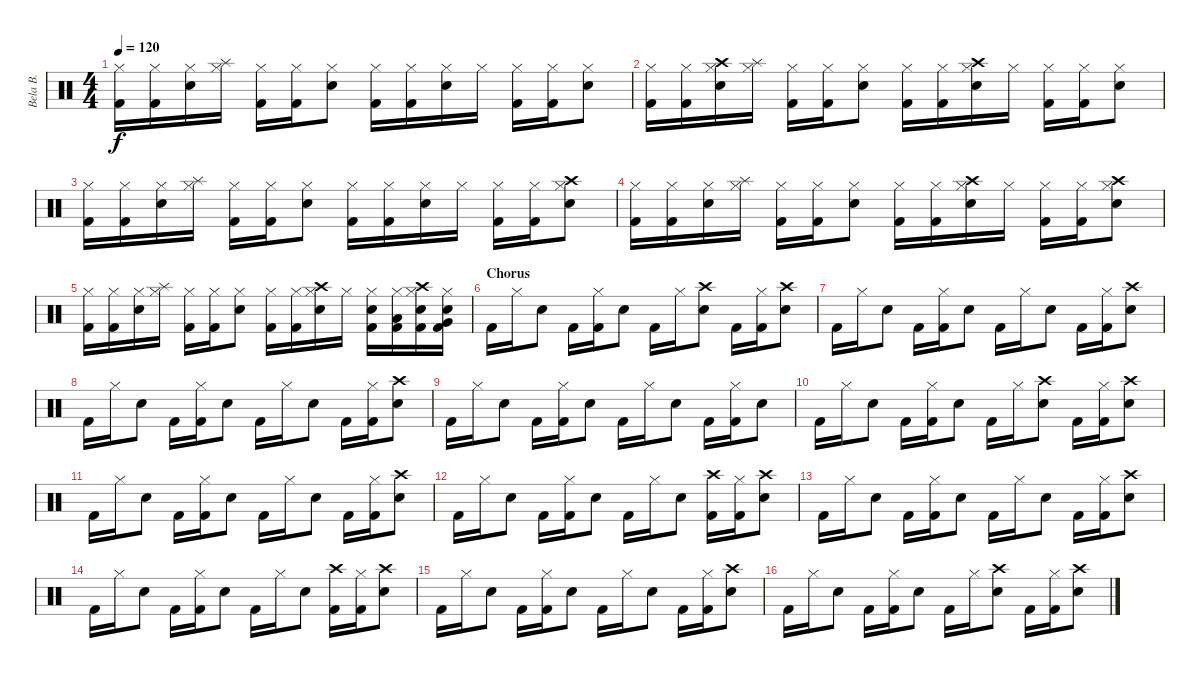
\track ("Bela B." "Bela B.") {instrument percussion}
\staff {score}
\articulation defaults
\ts (4 4)
\tempo 120
\clef neutral
\ks c
("Hi-Hat (closed)" "Kick (hit) 2").16{dy f} ("Hi-Hat (closed)" "Kick (hit) 2").16 ("Hi-Hat (closed)" "Electric Snare (hit)").16 ("Hi-Hat (closed)" "Splash (hit)").16 ("Hi-Hat (closed)" "Kick (hit) 2").16 ("Hi-Hat (closed)" "Kick (hit) 2").16 ("Hi-Hat (closed)" "Electric Snare (hit)").8 ("Hi-Hat (closed)" "Kick (hit) 2").16 ("Hi-Hat (closed)" "Kick (hit) 2").16 ("Hi-Hat (closed)" "Electric Snare (hit)").16 "Hi-Hat (closed)".16 ("Hi-Hat (closed)" "Kick (hit) 2").16 ("Hi-Hat (closed)" "Kick (hit) 2").16 ("Hi-Hat (closed)" "Electric Snare (hit)").8 |
("Hi-Hat (closed)" "Kick (hit) 2").16 ("Hi-Hat (closed)" "Kick (hit) 2").16 ("Hi-Hat (closed)" "Crash high (hit)" "Electric Snare (hit)").16 ("Hi-Hat (closed)" "Splash (hit)").16 ("Hi-Hat (closed)" "Kick (hit) 2").16 ("Hi-Hat (closed)" "Kick (hit) 2").16 ("Hi-Hat (closed)" "Electric Snare (hit)").8 ("Hi-Hat (closed)" "Kick (hit) 2").16 ("Hi-Hat (closed)" "Kick (hit) 2").16 ("Hi-Hat (closed)" "Crash high (hit)" "Electric Snare (hit)").16 "Hi-Hat (closed)".16 ("Hi-Hat (closed)" "Kick (hit) 2").16 ("Hi-Hat (closed)" "Kick (hit) 2").16 ("Hi-Hat (closed)" "Electric Snare (hit)").8 |
("Hi-Hat (closed)" "Kick (hit) 2").16 ("Hi-Hat (closed)" "Kick (hit) 2").16 ("Hi-Hat (closed)" "Electric Snare (hit)").16 ("Hi-Hat (closed)" "Splash (hit)").16 ("Hi-Hat (closed)" "Kick (hit) 2").16 ("Hi-Hat (closed)" "Kick (hit) 2").16 ("Hi-Hat (closed)" "Electric Snare (hit)").8 ("Hi-Hat (closed)" "Kick (hit) 2").16 ("Hi-Hat (closed)" "Kick (hit) 2").16 ("Hi-Hat (closed)" "Electric Snare (hit)").16 "Hi-Hat (closed)".16 ("Hi-Hat (closed)" "Kick (hit) 2").16 ("Hi-Hat (closed)" "Kick (hit) 2").16 ("Hi-Hat (closed)" "Crash high (hit)" "Electric Snare (hit)").8 |
("Hi-Hat (closed)" "Kick (hit) 2").16 ("Hi-Hat (closed)" "Kick (hit) 2").16 ("Hi-Hat (closed)" "Electric Snare (hit)").16 ("Hi-Hat (closed)" "Splash (hit)").16 ("Hi-Hat (closed)" "Kick (hit) 2").16 ("Hi-Hat (closed)" "Kick (hit) 2").16 ("Hi-Hat (closed)" "Electric Snare (hit)").8 ("Hi-Hat (closed)" "Kick (hit) 2").16 ("Hi-Hat (closed)" "Kick (hit) 2").16 ("Hi-Hat (closed)" "Crash high (hit)" "Electric Snare (hit)").16 "Hi-Hat (closed)".16 ("Hi-Hat (closed)" "Kick (hit) 2").16 ("Hi-Hat (closed)" "Kick (hit) 2").16 ("Hi-Hat (closed)" "Crash high (hit)" "Electric Snare (hit)").8 |
("Hi-Hat (closed)" "Kick (hit) 2").16 ("Hi-Hat (closed)" "Kick (hit) 2").16 ("Hi-Hat (closed)" "Electric Snare (hit)").16 ("Hi-Hat (closed)" "Splash (hit)").16 ("Hi-Hat (closed)" "Kick (hit) 2").16 ("Hi-Hat (closed)" "Kick (hit) 2").16 ("Hi-Hat (closed)" "Electric Snare (hit)").8 ("Hi-Hat (closed)" "Kick (hit) 2").16 ("Hi-Hat (closed)" "Kick (hit) 2").16 ("Hi-Hat (closed)" "Crash high (hit)" "Electric Snare (hit)").16 "Hi-Hat (closed)".16 ("Hi-Hat (closed)" "Electric Snare (hit)" "Kick (hit) 2").16 ("Hi-Hat (closed)" "Low Floor Tom (hit)" "Kick (hit) 2").16 ("Hi-Hat (closed)" "Crash high (hit)" "Electric Snare (hit)" "Kick (hit) 2").16 ("Hi-Hat (closed)" "Very Low Tom (hit)" "Electric Snare (hit)" "Kick (hit) 2").16 |
\section ("" "Chorus")
"Kick (hit) 2".16 "Hi-Hat (closed)".16 "Electric Snare (hit)".8 "Kick (hit) 2".16 ("Hi-Hat (closed)" "Kick (hit) 2").16 "Electric Snare (hit)".8 "Kick (hit) 2".16 "Hi-Hat (closed)".16 ("Crash high (hit)" "Electric Snare (hit)").8 "Kick (hit) 2".16 ("Hi-Hat (closed)" "Kick (hit) 2").16 ("Crash high (hit)" "Electric Snare (hit)").8 |
"Kick (hit) 2".16 "Hi-Hat (closed)".16 "Electric Snare (hit)".8 "Kick (hit) 2".16 ("Hi-Hat (closed)" "Kick (hit) 2").16 "Electric Snare (hit)".8 "Kick (hit) 2".16 "Hi-Hat (closed)".16 "Electric Snare (hit)".8 "Kick (hit) 2".16 ("Hi-Hat (closed)" "Kick (hit) 2").16 ("Crash high (hit)" "Electric Snare (hit)").8 |
"Kick (hit) 2".16 "Hi-Hat (closed)".16 "Electric Snare (hit)".8 "Kick (hit) 2".16 ("Hi-Hat (closed)" "Kick (hit) 2").16 "Electric Snare (hit)".8 "Kick (hit) 2".16 "Hi-Hat (closed)".16 "Electric Snare (hit)".8 "Kick (hit) 2".16 ("Hi-Hat (closed)" "Kick (hit) 2").16 ("Crash high (hit)" "Electric Snare (hit)").8 |
"Kick (hit) 2".16 "Hi-Hat (closed)".16 "Electric Snare (hit)".8 "Kick (hit) 2".16 ("Hi-Hat (closed)" "Kick (hit) 2").16 "Electric Snare (hit)".8 "Kick (hit) 2".16 "Hi-Hat (closed)".16 "Electric Snare (hit)".8 "Kick (hit) 2".16 ("Hi-Hat (closed)" "Kick (hit) 2").16 "Electric Snare (hit)".8 |
"Kick (hit) 2".16 "Hi-Hat (closed)".16 "Electric Snare (hit)".8 "Kick (hit) 2".16 ("Hi-Hat (closed)" "Kick (hit) 2").16 "Electric Snare (hit)".8 "Kick (hit) 2".16 "Hi-Hat (closed)".16 ("Crash high (hit)" "Electric Snare (hit)").8 "Kick (hit) 2".16 ("Hi-Hat (closed)" "Kick (hit) 2").16 ("Crash high (hit)" "Electric Snare (hit)").8 |
"Kick (hit) 2".16 "Hi-Hat (closed)".16 "Electric Snare (hit)".8 "Kick (hit) 2".16 ("Hi-Hat (closed)" "Kick (hit) 2").16 "Electric Snare (hit)".8 "Kick (hit) 2".16 "Hi-Hat (closed)".16 "Electric Snare (hit)".8 "Kick (hit) 2".16 ("Hi-Hat (closed)" "Kick (hit) 2").16 ("Crash high (hit)" "Electric Snare (hit)").8 |
"Kick (hit) 2".16 "Hi-Hat (closed)".16 "Electric Snare (hit)".8 "Kick (hit) 2".16 ("Hi-Hat (closed)" "Kick (hit) 2").16 "Electric Snare (hit)".8 "Kick (hit) 2".16 "Hi-Hat (closed)".16 "Electric Snare (hit)".8 ("Crash high (hit)" "Kick (hit) 2").16 ("Hi-Hat (closed)" "Kick (hit) 2").16 ("Crash high (hit)" "Electric Snare (hit)").8 |
"Kick (hit) 2".16 "Hi-Hat (closed)".16 "Electric Snare (hit)".8 "Kick (hit) 2".16 ("Hi-Hat (closed)" "Kick (hit) 2").16 "Electric Snare (hit)".8 "Kick (hit) 2".16 "Hi-Hat (closed)".16 "Electric Snare (hit)".8 "Kick (hit) 2".16 ("Hi-Hat (closed)" "Kick (hit) 2").16 ("Crash high (hit)" "Electric Snare (hit)").8 |
"Kick (hit) 2".16 "Hi-Hat (closed)".16 "Electric Snare (hit)".8 "Kick (hit) 2".16 ("Hi-Hat (closed)" "Kick (hit) 2").16 "Electric Snare (hit)".8 "Kick (hit) 2".16 "Hi-Hat (closed)".16 "Electric Snare (hit)".8 ("Crash high (hit)" "Kick (hit) 2").16 ("Hi-Hat (closed)" "Kick (hit) 2").16 ("Crash high (hit)" "Electric Snare (hit)").8 |
"Kick (hit) 2".16 "Hi-Hat (closed)".16 "Electric Snare (hit)".8 "Kick (hit) 2".16 ("Hi-Hat (closed)" "Kick (hit) 2").16 "Electric Snare (hit)".8 "Kick (hit) 2".16 "Hi-Hat (closed)".16 "Electric Snare (hit)".8 "Kick (hit) 2".16 ("Hi-Hat (closed)" "Kick (hit) 2").16 ("Crash high (hit)" "Electric Snare (hit)").8 |
"Kick (hit) 2".16 "Hi-Hat (closed)".16 "Electric Snare (hit)".8 "Kick (hit) 2".16 ("Hi-Hat (closed)" "Kick (hit) 2").16 "Electric Snare (hit)".8 "Kick (hit) 2".16 "Hi-Hat (closed)".16 ("Crash high (hit)" "Electric Snare (hit)").8 "Kick (hit) 2".16 ("Hi-Hat (closed)" "Kick (hit) 2").16 ("Crash high (hit)" "Electric Snare (hit)").8
